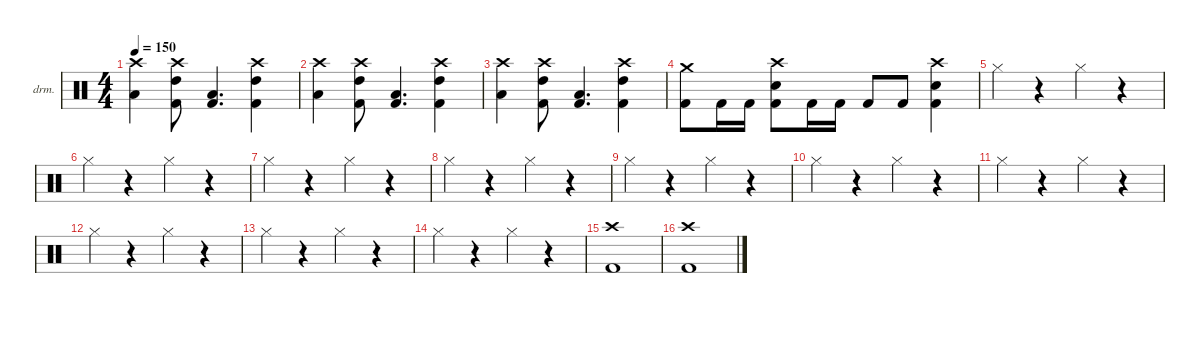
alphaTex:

\defaultSystemsLayout 4
\hideDynamics
\bracketExtendMode nobrackets
\firstSystemTrackNameOrientation horizontal
\otherSystemsTrackNameOrientation horizontal
\track ("Drumkit" "drm.") {instrument percussion}
\staff {score}
\articulation defaults
\ts (4 4)
\tempo 150
\clef neutral
\ks c
("Crash high (hit)" "Low Tom (hit)").4{dy f} ("Kick (hit) 2" "Crash high (hit)" "High Tom (hit)").8 ("Kick (hit) 2" "Low Tom (hit)").4{d} ("Kick (hit) 2" "Crash high (hit)" "High Tom (hit)").4 |
("Crash high (hit)" "Low Tom (hit)").4 ("Kick (hit) 2" "Crash high (hit)" "High Tom (hit)").8 ("Kick (hit) 2" "Low Tom (hit)").4{d} ("Kick (hit) 2" "Crash high (hit)" "High Tom (hit)").4 |
("Crash high (hit)" "Low Tom (hit)").4 ("Kick (hit) 2" "Crash high (hit)" "High Tom (hit)").8 ("Kick (hit) 2" "Low Tom (hit)").4{d} ("Kick (hit) 2" "Crash high (hit)" "High Tom (hit)").4 |
("Crash medium (hit)" "Kick (hit) 2").8 "Kick (hit) 2".16 "Kick (hit) 2".16 ("Crash high (hit)" "Snare (hit) 2" "Kick (hit) 2").8 "Kick (hit) 2".16 "Kick (hit) 2".16 "Kick (hit) 2".8 "Kick (hit) 2".8 ("Crash high (hit)" "Snare (hit) 2" "Kick (hit) 2").4 |
"Hi-Hat (closed)".4 r.4 "Hi-Hat (closed)".4 r.4 |
"Hi-Hat (closed)".4 r.4 "Hi-Hat (closed)".4 r.4 |
"Hi-Hat (closed)".4 r.4 "Hi-Hat (closed)".4 r.4 |
"Hi-Hat (closed)".4 r.4 "Hi-Hat (closed)".4 r.4 |
"Hi-Hat (closed)".4 r.4 "Hi-Hat (closed)".4 r.4 |
"Hi-Hat (closed)".4 r.4 "Hi-Hat (closed)".4 r.4 |
"Hi-Hat (closed)".4 r.4 "Hi-Hat (closed)".4 r.4 |
"Hi-Hat (closed)".4 r.4 "Hi-Hat (closed)".4 r.4 |
"Hi-Hat (closed)".4 r.4 "Hi-Hat (closed)".4 r.4 |
"Hi-Hat (closed)".4 r.4 "Hi-Hat (closed)".4 r.4 |
("Kick (hit) 2" "Crash high (hit)").1 |
("Kick (hit) 2" "Crash high (hit)").1
